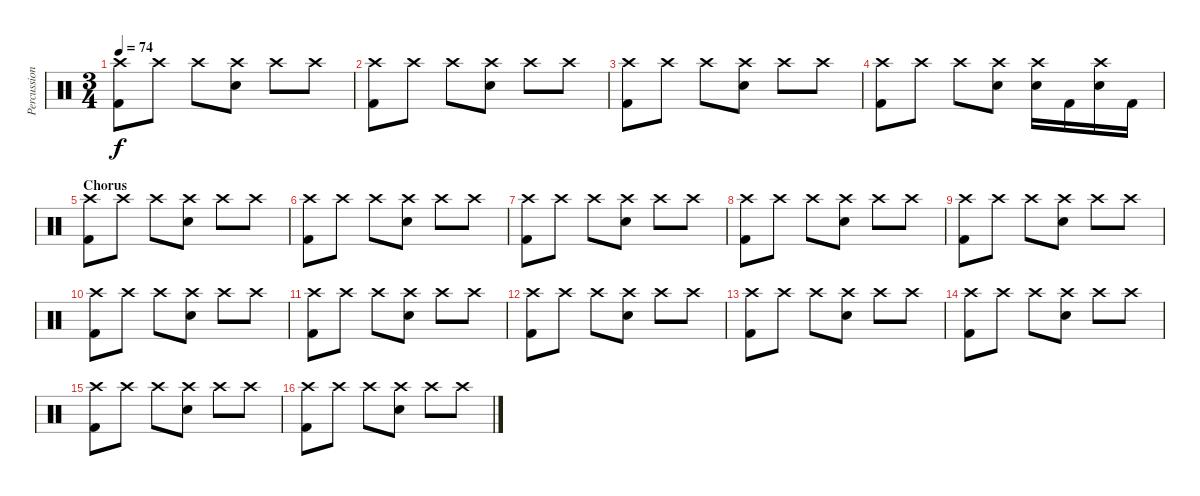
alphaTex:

\track ("Percussion" "Percussion") {instrument percussion}
\staff {score}
\articulation defaults
\ts (3 4)
\tempo 74
\clef neutral
\ks c
("Crash high (hit)" "Kick (hit) 2").8{dy f} "Crash high (hit)".8 "Crash high (hit)".8 ("Crash high (hit)" "Electric Snare (hit)").8 "Crash high (hit)".8 "Crash high (hit)".8 |
("Crash high (hit)" "Kick (hit) 2").8 "Crash high (hit)".8 "Crash high (hit)".8 ("Crash high (hit)" "Electric Snare (hit)").8 "Crash high (hit)".8 "Crash high (hit)".8 |
("Crash high (hit)" "Kick (hit) 2").8 "Crash high (hit)".8 "Crash high (hit)".8 ("Crash high (hit)" "Electric Snare (hit)").8 "Crash high (hit)".8 "Crash high (hit)".8 |
("Crash high (hit)" "Kick (hit) 2").8 "Crash high (hit)".8 "Crash high (hit)".8 ("Crash high (hit)" "Electric Snare (hit)").8 ("Crash high (hit)" "Electric Snare (hit)").16 "Kick (hit) 2".16 ("Crash high (hit)" "Electric Snare (hit)").16 "Kick (hit) 2".16 |
\section ("" "Chorus")
("Crash high (hit)" "Kick (hit) 2").8 "Crash high (hit)".8 "Crash high (hit)".8 ("Crash high (hit)" "Electric Snare (hit)").8 "Crash high (hit)".8 "Crash high (hit)".8 |
("Crash high (hit)" "Kick (hit) 2").8 "Crash high (hit)".8 "Crash high (hit)".8 ("Crash high (hit)" "Electric Snare (hit)").8 "Crash high (hit)".8 "Crash high (hit)".8 |
("Crash high (hit)" "Kick (hit) 2").8 "Crash high (hit)".8 "Crash high (hit)".8 ("Crash high (hit)" "Electric Snare (hit)").8 "Crash high (hit)".8 "Crash high (hit)".8 |
("Crash high (hit)" "Kick (hit) 2").8 "Crash high (hit)".8 "Crash high (hit)".8 ("Crash high (hit)" "Electric Snare (hit)").8 "Crash high (hit)".8 "Crash high (hit)".8 |
("Crash high (hit)" "Kick (hit) 2").8 "Crash high (hit)".8 "Crash high (hit)".8 ("Crash high (hit)" "Electric Snare (hit)").8 "Crash high (hit)".8 "Crash high (hit)".8 |
("Crash high (hit)" "Kick (hit) 2").8 "Crash high (hit)".8 "Crash high (hit)".8 ("Crash high (hit)" "Electric Snare (hit)").8 "Crash high (hit)".8 "Crash high (hit)".8 |
("Crash high (hit)" "Kick (hit) 2").8 "Crash high (hit)".8 "Crash high (hit)".8 ("Crash high (hit)" "Electric Snare (hit)").8 "Crash high (hit)".8 "Crash high (hit)".8 |
("Crash high (hit)" "Kick (hit) 2").8 "Crash high (hit)".8 "Crash high (hit)".8 ("Crash high (hit)" "Electric Snare (hit)").8 "Crash high (hit)".8 "Crash high (hit)".8 |
("Crash high (hit)" "Kick (hit) 2").8 "Crash high (hit)".8 "Crash high (hit)".8 ("Crash high (hit)" "Electric Snare (hit)").8 "Crash high (hit)".8 "Crash high (hit)".8 |
("Crash high (hit)" "Kick (hit) 2").8 "Crash high (hit)".8 "Crash high (hit)".8 ("Crash high (hit)" "Electric Snare (hit)").8 "Crash high (hit)".8 "Crash high (hit)".8 |
("Crash high (hit)" "Kick (hit) 2").8 "Crash high (hit)".8 "Crash high (hit)".8 ("Crash high (hit)" "Electric Snare (hit)").8 "Crash high (hit)".8 "Crash high (hit)".8 |
("Crash high (hit)" "Kick (hit) 2").8 "Crash high (hit)".8 "Crash high (hit)".8 ("Crash high (hit)" "Electric Snare (hit)").8 "Crash high (hit)".8 "Crash high (hit)".8
